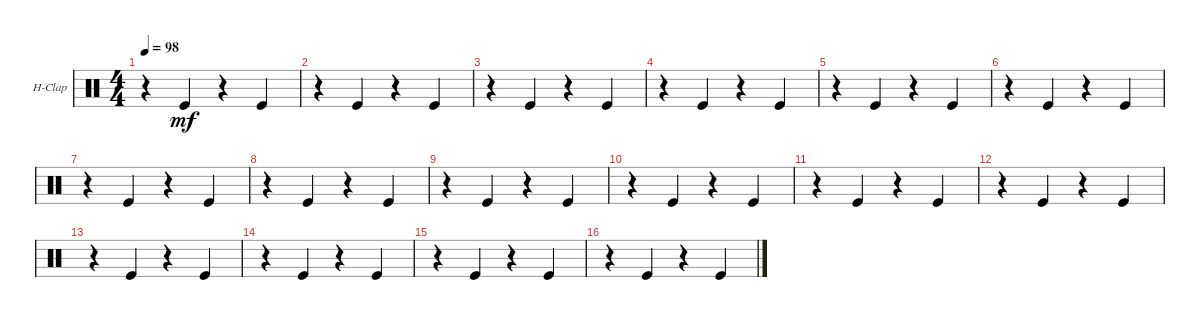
\defaultSystemsLayout 4
\bracketExtendMode groupsimilarinstruments
\firstSystemTrackNameOrientation horizontal
\otherSystemsTrackNameOrientation horizontal
\track ("Hand Clap" "H-Clap") {instrument percussion}
\staff {score}
\articulation defaults
\ts (4 4)
\tempo 98
\clef neutral
\ks c
r.4{dy mf} "Kick (hit)".4 r.4 "Kick (hit)".4 |
r.4 "Kick (hit)".4 r.4 "Kick (hit)".4 |
r.4 "Kick (hit)".4 r.4 "Kick (hit)".4 |
r.4 "Kick (hit)".4 r.4 "Kick (hit)".4 |
r.4 "Kick (hit)".4 r.4 "Kick (hit)".4 |
r.4 "Kick (hit)".4 r.4 "Kick (hit)".4 |
r.4 "Kick (hit)".4 r.4 "Kick (hit)".4 |
r.4 "Kick (hit)".4 r.4 "Kick (hit)".4 |
r.4 "Kick (hit)".4 r.4 "Kick (hit)".4 |
r.4 "Kick (hit)".4 r.4 "Kick (hit)".4 |
r.4 "Kick (hit)".4 r.4 "Kick (hit)".4 |
r.4 "Kick (hit)".4 r.4 "Kick (hit)".4 |
r.4 "Kick (hit)".4 r.4 "Kick (hit)".4 |
r.4 "Kick (hit)".4 r.4 "Kick (hit)".4 |
r.4 "Kick (hit)".4 r.4 "Kick (hit)".4 |
r.4 "Kick (hit)".4 r.4 "Kick (hit)".4
